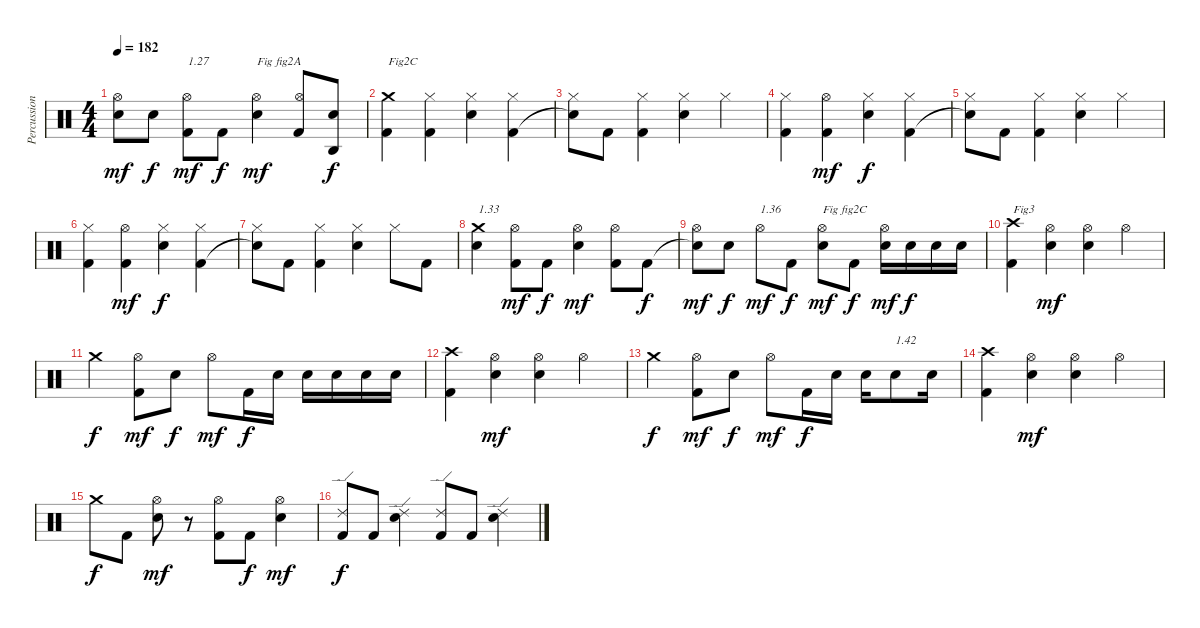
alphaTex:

\track ("Percussions" "Percussion") {instrument percussion}
\staff {score}
\articulation defaults
\ts (4 4)
\tempo 182
\clef neutral
\ks c
("Snare (hit)"{t} "Hi-Hat (open)").8{dy mf} "Electric Snare (hit)".8{dy f} ("Kick (hit) 2" "Hi-Hat (open)").8{txt "1.27" dy mf} "Kick (hit) 2".8{dy f} ("Electric Snare (hit)" "Hi-Hat (open)").4{txt "Fig fig2A" dy mf} ("Kick (hit) 2" "Hi-Hat (open)").8 ("Electric Snare (hit)" "Agogo high (hit)").8{dy f} |
("Kick (hit) 2" "Crash medium (hit)").4{txt "Fig2C"} ("Kick (hit) 2" "Hi-Hat (closed)").4 ("Electric Snare (hit)" "Hi-Hat (closed)").4 ("Kick (hit) 2" "Hi-Hat (closed)").4 |
("Snare (hit)"{t} "Hi-Hat (closed)").8 "Kick (hit) 2".8 ("Kick (hit) 2" "Hi-Hat (closed)").4 ("Electric Snare (hit)" "Hi-Hat (closed)").4 "Hi-Hat (closed)".4 |
("Kick (hit) 2" "Hi-Hat (closed)").4 ("Kick (hit) 2" "Hi-Hat (open)").4{dy mf} ("Electric Snare (hit)" "Hi-Hat (closed)").4{dy f} ("Kick (hit) 2" "Hi-Hat (closed)").4 |
("Snare (hit)"{t} "Hi-Hat (closed)").8 "Kick (hit) 2".8 ("Kick (hit) 2" "Hi-Hat (closed)").4 ("Electric Snare (hit)" "Hi-Hat (closed)").4 "Hi-Hat (closed)".4 |
("Kick (hit) 2" "Hi-Hat (closed)").4 ("Kick (hit) 2" "Hi-Hat (open)").4{dy mf} ("Electric Snare (hit)" "Hi-Hat (closed)").4{dy f} ("Kick (hit) 2" "Hi-Hat (closed)").4 |
("Snare (hit)"{t} "Hi-Hat (closed)").8 "Kick (hit) 2".8 ("Kick (hit) 2" "Hi-Hat (closed)").4 ("Electric Snare (hit)" "Hi-Hat (closed)").4 "Hi-Hat (closed)".8 "Kick (hit) 2".8 |
("Electric Snare (hit)" "Crash medium (hit)").4{txt "1.33"} ("Kick (hit) 2" "Hi-Hat (open)").8{dy mf} "Kick (hit) 2".8{dy f} ("Electric Snare (hit)" "Hi-Hat (open)").4{dy mf} ("Kick (hit) 2" "Hi-Hat (open)").8 "Kick (hit) 2".8{dy f} |
("Snare (hit)"{t} "Hi-Hat (open)").8{dy mf} "Electric Snare (hit)".8{dy f} "Hi-Hat (open)".8{txt "1.36" dy mf} "Kick (hit) 2".8{dy f} ("Electric Snare (hit)" "Hi-Hat (open)").8{txt "Fig fig2C" dy mf} "Kick (hit) 2".8{dy f} ("Electric Snare (hit)" "Hi-Hat (open)").16{dy mf} "Electric Snare (hit)".16{dy f} "Electric Snare (hit)".16 "Electric Snare (hit)".16 |
("Kick (hit) 2" "Crash high (hit)").4{txt "Fig3"} ("Electric Snare (hit)" "Hi-Hat (open)").4{dy mf} ("Electric Snare (hit)" "Hi-Hat (open)").4 "Hi-Hat (open)".4 |
"Crash medium (hit)".4{dy f} ("Kick (hit) 2" "Hi-Hat (open)").8{dy mf} "Electric Snare (hit)".8{dy f} "Hi-Hat (open)".8{dy mf} "Kick (hit) 2".16{dy f} "Electric Snare (hit)".16 "Electric Snare (hit)".16 "Electric Snare (hit)".16 "Electric Snare (hit)".16 "Electric Snare (hit)".16 |
("Kick (hit) 2" "Crash high (hit)").4 ("Electric Snare (hit)" "Hi-Hat (open)").4{dy mf} ("Electric Snare (hit)" "Hi-Hat (open)").4 "Hi-Hat (open)".4 |
"Crash medium (hit)".4{dy f} ("Kick (hit) 2" "Hi-Hat (open)").8{dy mf} "Electric Snare (hit)".8{dy f} "Hi-Hat (open)".8{dy mf} "Kick (hit) 2".16{dy f} "Electric Snare (hit)".16 "Electric Snare (hit)".16 "Electric Snare (hit)".8{txt "1.42"} "Electric Snare (hit)".16 |
("Kick (hit) 2" "Crash high (hit)").4 ("Electric Snare (hit)" "Hi-Hat (open)").4{dy mf} ("Electric Snare (hit)" "Hi-Hat (open)").4 "Hi-Hat (open)".4 |
"Crash medium (hit)".8{dy f} "Kick (hit) 2".8 ("Electric Snare (hit)" "Hi-Hat (open)").8{dy mf} r.8 ("Kick (hit) 2" "Hi-Hat (open)").8 "Kick (hit) 2".8{dy f} ("Electric Snare (hit)" "Hi-Hat (open)").4{dy mf} |
("Kick (hit) 2" "Ride (edge) 2").8{dy f} "Kick (hit) 2".8 ("Electric Snare (hit)" "Ride (edge) 2").4 ("Kick (hit) 2" "Ride (edge) 2").8 "Kick (hit) 2".8 ("Electric Snare (hit)" "Ride (edge) 2").4
